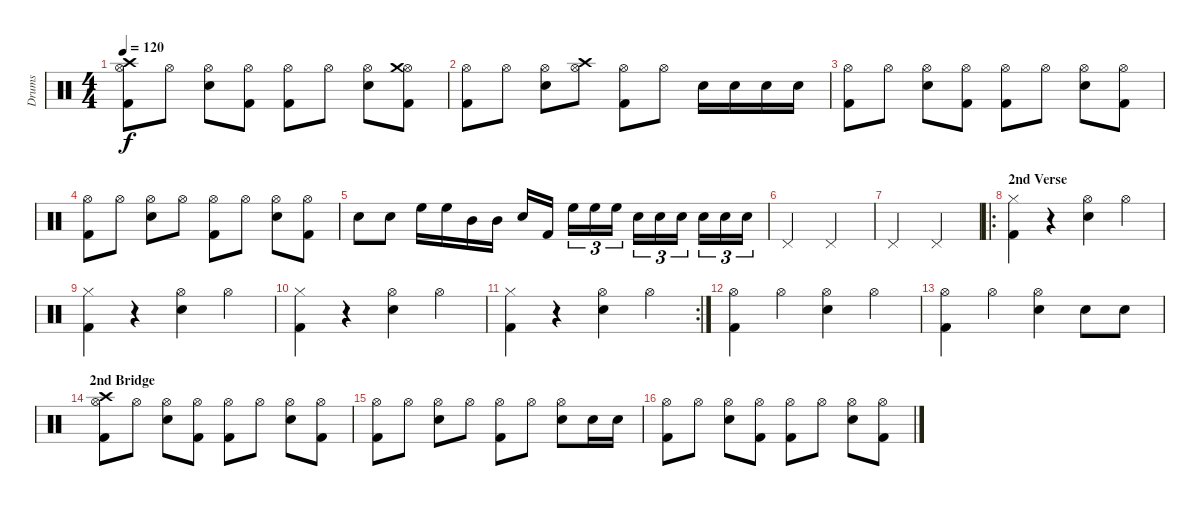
\track ("Drums" "Drums") {instrument percussion}
\staff {score}
\articulation defaults
\ts (4 4)
\tempo 120
\clef neutral
\ks c
("Hi-Hat (open)" "Crash high (hit)" "Kick (hit) 2").8{dy f} "Hi-Hat (open)".8 ("Hi-Hat (open)" "Electric Snare (hit)").8 ("Hi-Hat (open)" "Kick (hit) 2").8 ("Hi-Hat (open)" "Kick (hit) 2").8 "Hi-Hat (open)".8 ("Hi-Hat (open)" "Electric Snare (hit)").8 ("Hi-Hat (open)" "Crash medium (hit)" "Kick (hit) 2").8 |
("Hi-Hat (open)" "Kick (hit) 2").8 "Hi-Hat (open)".8 ("Hi-Hat (open)" "Electric Snare (hit)").8 ("Hi-Hat (open)" "Crash high (hit)").8 ("Hi-Hat (open)" "Kick (hit) 2").8 "Hi-Hat (open)".8 "Electric Snare (hit)".16 "Electric Snare (hit)".16 "Electric Snare (hit)".16 "Electric Snare (hit)".16 |
("Hi-Hat (open)" "Kick (hit) 2").8 "Hi-Hat (open)".8 ("Hi-Hat (open)" "Electric Snare (hit)").8 ("Hi-Hat (open)" "Kick (hit) 2").8 ("Hi-Hat (open)" "Kick (hit) 2").8 "Hi-Hat (open)".8 ("Hi-Hat (open)" "Electric Snare (hit)").8 ("Hi-Hat (open)" "Kick (hit) 2").8 |
("Hi-Hat (open)" "Kick (hit) 2").8 "Hi-Hat (open)".8 ("Hi-Hat (open)" "Electric Snare (hit)").8 "Hi-Hat (open)".8 ("Hi-Hat (open)" "Kick (hit) 2").8 "Hi-Hat (open)".8 ("Hi-Hat (open)" "Electric Snare (hit)").8 ("Hi-Hat (open)" "Kick (hit) 2").8 |
"Snare (hit) 2".8 "Snare (hit) 2".8 "High Floor Tom (hit)".16 "High Floor Tom (hit)".16 "Mid Tom (hit)".16 "Mid Tom (hit)".16 "Snare (hit) 2".16 "Kick (hit) 2".16 "High Floor Tom (hit)".16{tu (3 2)} "High Floor Tom (hit)".16{tu (3 2)} "High Floor Tom (hit)".16{tu (3 2)} "Snare (hit) 2".16{tu (3 2)} "Snare (hit) 2".16{tu (3 2)} "Snare (hit) 2".16{tu (3 2)} "Snare (hit) 2".16{tu (3 2)} "Snare (hit) 2".16{tu (3 2)} "Snare (hit) 2".16{tu (3 2)} |
"Pedal Hi-Hat (hit)".2 "Pedal Hi-Hat (hit)".2 |
"Pedal Hi-Hat (hit)".2 "Pedal Hi-Hat (hit)".2 |
\ro
\section ("" "2nd Verse")
("Hi-Hat (closed)" "Kick (hit) 2").4 r.4 ("Hi-Hat (open)" "Snare (hit) 2").4 "Hi-Hat (open)".4 |
("Hi-Hat (closed)" "Kick (hit) 2").4 r.4 ("Hi-Hat (open)" "Snare (hit) 2").4 "Hi-Hat (open)".4 |
("Hi-Hat (closed)" "Kick (hit) 2").4 r.4 ("Hi-Hat (open)" "Snare (hit) 2").4 "Hi-Hat (open)".4 |
\rc 2
("Hi-Hat (closed)" "Kick (hit) 2").4 r.4 ("Hi-Hat (open)" "Snare (hit) 2").4 "Hi-Hat (open)".4 |
("Hi-Hat (open)" "Kick (hit) 2").4 "Hi-Hat (open)".4 ("Hi-Hat (open)" "Snare (hit) 2").4 "Hi-Hat (open)".4 |
("Hi-Hat (open)" "Kick (hit) 2").4 "Hi-Hat (open)".4 ("Hi-Hat (open)" "Snare (hit) 2").4 "Snare (hit) 2".8 "Snare (hit) 2".8 |
\section ("" "2nd Bridge")
("Hi-Hat (open)" "Crash high (hit)" "Kick (hit) 2").8 "Hi-Hat (open)".8 ("Hi-Hat (open)" "Electric Snare (hit)").8 ("Hi-Hat (open)" "Kick (hit) 2").8 ("Hi-Hat (open)" "Kick (hit) 2").8 "Hi-Hat (open)".8 ("Hi-Hat (open)" "Electric Snare (hit)").8 ("Hi-Hat (open)" "Kick (hit) 2").8 |
("Hi-Hat (open)" "Kick (hit) 2").8 "Hi-Hat (open)".8 ("Hi-Hat (open)" "Electric Snare (hit)").8 "Hi-Hat (open)".8 ("Hi-Hat (open)" "Kick (hit) 2").8 "Hi-Hat (open)".8 ("Hi-Hat (open)" "Electric Snare (hit)").8 "Snare (hit) 2".16 "Snare (hit) 2".16 |
("Hi-Hat (open)" "Kick (hit) 2").8 "Hi-Hat (open)".8 ("Hi-Hat (open)" "Electric Snare (hit)").8 ("Hi-Hat (open)" "Kick (hit) 2").8 ("Hi-Hat (open)" "Kick (hit) 2").8 "Hi-Hat (open)".8 ("Hi-Hat (open)" "Electric Snare (hit)").8 ("Hi-Hat (open)" "Kick (hit) 2").8
